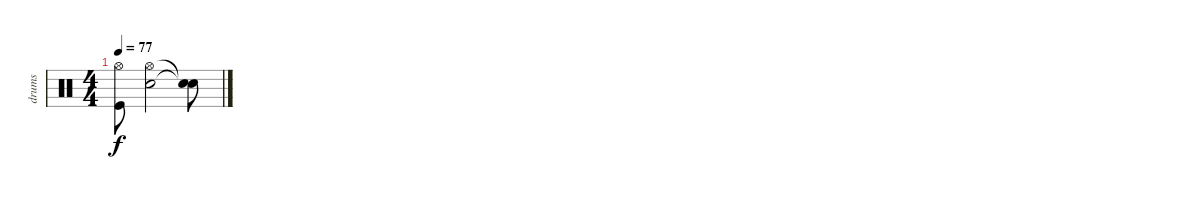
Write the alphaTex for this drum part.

\track ("drums" "drums") {instrument percussion}
\staff {score}
\articulation defaults
\ts (4 4)
\tempo 77
\clef neutral
\ks c
("Kick (hit)" "Hi-Hat (open)").8{dy f} ("Snare (hit) 2" "Hi-Hat (open)").2 ("Snare (hit)"{t} "Snare (hit)"{t}).8
